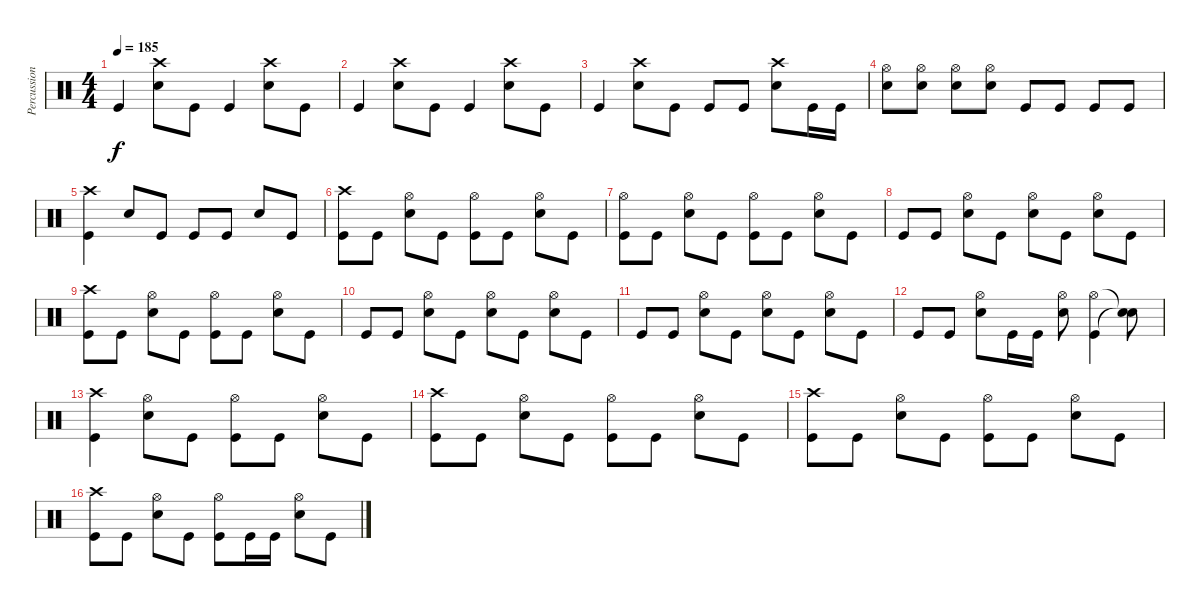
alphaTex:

\track ("Percussions" "Percussion") {instrument percussion}
\staff {score}
\articulation defaults
\ts (4 4)
\tempo 185
\clef neutral
\ks c "Kick (hit)".4{dy f}
("Crash high (hit)" "Snare (hit) 2").8 "Kick (hit)".8 "Kick (hit)".4 ("Crash high (hit)" "Snare (hit) 2").8 "Kick (hit)".8 |
"Kick (hit)".4 ("Crash high (hit)" "Snare (hit) 2").8 "Kick (hit)".8 "Kick (hit)".4 ("Crash high (hit)" "Snare (hit) 2").8 "Kick (hit)".8 |
"Kick (hit)".4 ("Crash high (hit)" "Snare (hit) 2").8 "Kick (hit)".8 "Kick (hit)".8 "Kick (hit)".8 ("Crash high (hit)" "Snare (hit) 2").8 "Kick (hit)".16 "Kick (hit)".16 |
("Hi-Hat (open)" "Snare (hit) 2").8 ("Hi-Hat (open)" "Snare (hit) 2").8 ("Hi-Hat (open)" "Snare (hit) 2").8 ("Hi-Hat (open)" "Snare (hit) 2").8 "Kick (hit)".8 "Kick (hit)".8 "Kick (hit)".8 "Kick (hit)".8 |
("Crash high (hit)" "Kick (hit)").4 "Snare (hit) 2".8 "Kick (hit)".8 "Kick (hit)".8 "Kick (hit)".8 "Snare (hit) 2".8 "Kick (hit)".8 |
("Crash high (hit)" "Kick (hit)").8 "Kick (hit)".8 ("Hi-Hat (open)" "Snare (hit) 2").8 "Kick (hit)".8 ("Hi-Hat (open)" "Kick (hit)").8 "Kick (hit)".8 ("Hi-Hat (open)" "Snare (hit) 2").8 "Kick (hit)".8 |
("Hi-Hat (open)" "Kick (hit)").8 "Kick (hit)".8 ("Hi-Hat (open)" "Snare (hit) 2").8 "Kick (hit)".8 ("Hi-Hat (open)" "Kick (hit)").8 "Kick (hit)".8 ("Hi-Hat (open)" "Snare (hit) 2").8 "Kick (hit)".8 |
"Kick (hit)".8 "Kick (hit)".8 ("Hi-Hat (open)" "Snare (hit) 2").8 "Kick (hit)".8 ("Hi-Hat (open)" "Snare (hit) 2").8 "Kick (hit)".8 ("Hi-Hat (open)" "Snare (hit) 2").8 "Kick (hit)".8 |
("Crash high (hit)" "Kick (hit)").8 "Kick (hit)".8 ("Hi-Hat (open)" "Snare (hit) 2").8 "Kick (hit)".8 ("Hi-Hat (open)" "Kick (hit)").8 "Kick (hit)".8 ("Hi-Hat (open)" "Snare (hit) 2").8 "Kick (hit)".8 |
"Kick (hit)".8 "Kick (hit)".8 ("Hi-Hat (open)" "Snare (hit) 2").8 "Kick (hit)".8 ("Hi-Hat (open)" "Snare (hit) 2").8 "Kick (hit)".8 ("Hi-Hat (open)" "Snare (hit) 2").8 "Kick (hit)".8 |
"Kick (hit)".8 "Kick (hit)".8 ("Hi-Hat (open)" "Snare (hit) 2").8 "Kick (hit)".8 ("Hi-Hat (open)" "Snare (hit) 2").8 "Kick (hit)".8 ("Hi-Hat (open)" "Snare (hit) 2").8 "Kick (hit)".8 |
"Kick (hit)".8 "Kick (hit)".8 ("Hi-Hat (open)" "Snare (hit) 2").8 "Kick (hit)".16 "Kick (hit)".16 ("Hi-Hat (open)" "Snare (hit) 2").8 ("Hi-Hat (open)" "Kick (hit)").4 ("Snare (hit)"{t} "Snare (hit)"{t}).8 |
("Crash high (hit)" "Kick (hit)").4 ("Hi-Hat (open)" "Snare (hit) 2").8 "Kick (hit)".8 ("Hi-Hat (open)" "Kick (hit)").8 "Kick (hit)".8 ("Hi-Hat (open)" "Snare (hit) 2").8 "Kick (hit)".8 |
("Crash high (hit)" "Kick (hit)").8 "Kick (hit)".8 ("Hi-Hat (open)" "Snare (hit) 2").8 "Kick (hit)".8 ("Hi-Hat (open)" "Kick (hit)").8 "Kick (hit)".8 ("Hi-Hat (open)" "Snare (hit) 2").8 "Kick (hit)".8 |
("Crash high (hit)" "Kick (hit)").8 "Kick (hit)".8 ("Hi-Hat (open)" "Snare (hit) 2").8 "Kick (hit)".8 ("Hi-Hat (open)" "Kick (hit)").8 "Kick (hit)".8 ("Hi-Hat (open)" "Snare (hit) 2").8 "Kick (hit)".8 |
("Crash high (hit)" "Kick (hit)").8 "Kick (hit)".8 ("Hi-Hat (open)" "Snare (hit) 2").8 "Kick (hit)".8 ("Hi-Hat (open)" "Kick (hit)").8 "Kick (hit)".16 "Kick (hit)".16 ("Hi-Hat (open)" "Snare (hit) 2").8 "Kick (hit)".8
